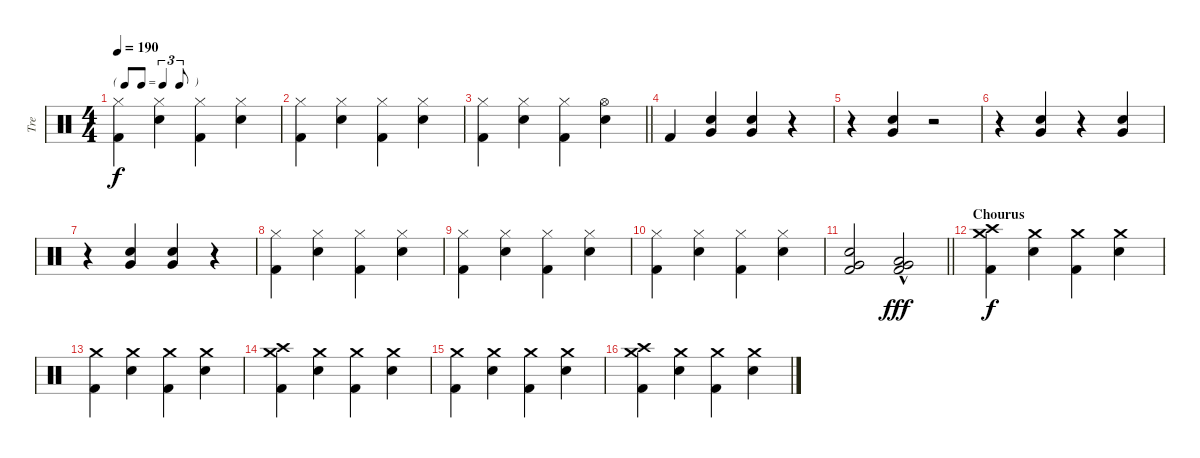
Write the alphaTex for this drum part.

\track ("Tre" "Tre") {instrument percussion}
\staff {score}
\articulation defaults
\ts (4 4)
\tf triplet8th
\tempo 190
\clef neutral
\ks c
("Hi-Hat (closed)" "Kick (hit) 2").4{dy f} ("Hi-Hat (closed)" "Snare (hit) 2").4 ("Hi-Hat (closed)" "Kick (hit) 2").4 ("Hi-Hat (closed)" "Snare (hit) 2").4 |
("Hi-Hat (closed)" "Kick (hit) 2").4 ("Hi-Hat (closed)" "Snare (hit) 2").4 ("Hi-Hat (closed)" "Kick (hit) 2").4 ("Hi-Hat (closed)" "Snare (hit) 2").4 |
\barLineRight lightlight
("Hi-Hat (closed)" "Kick (hit) 2").4 ("Hi-Hat (closed)" "Snare (hit) 2").4 ("Hi-Hat (closed)" "Kick (hit) 2").4 ("Hi-Hat (open)" "Snare (hit) 2").4 |
"Kick (hit) 2".4 ("Snare (hit) 2" "Very Low Tom (hit)").4 ("Snare (hit) 2" "Very Low Tom (hit)").4 r.4 |
r.4 ("Snare (hit) 2" "Very Low Tom (hit)").4 r.2 |
r.4 ("Snare (hit) 2" "Very Low Tom (hit)").4 r.4 ("Snare (hit) 2" "Very Low Tom (hit)").4 |
r.4 ("Snare (hit) 2" "Very Low Tom (hit)").4 ("Snare (hit) 2" "Very Low Tom (hit)").4 r.4 |
("Hi-Hat (closed)" "Kick (hit) 2").4 ("Hi-Hat (closed)" "Snare (hit) 2").4 ("Hi-Hat (closed)" "Kick (hit) 2").4 ("Hi-Hat (closed)" "Snare (hit) 2").4 |
("Hi-Hat (closed)" "Kick (hit) 2").4 ("Hi-Hat (closed)" "Snare (hit) 2").4 ("Hi-Hat (closed)" "Kick (hit) 2").4 ("Hi-Hat (closed)" "Snare (hit) 2").4 |
("Hi-Hat (closed)" "Kick (hit) 2").4 ("Hi-Hat (closed)" "Snare (hit) 2").4 ("Hi-Hat (closed)" "Kick (hit) 2").4 ("Hi-Hat (closed)" "Snare (hit) 2").4 |
\barLineRight lightlight
("Snare (hit) 2" "Very Low Tom (hit)" "Kick (hit) 2").2 ("Very Low Tom (hit)"{hac} "Low Floor Tom (hit)"{hac} "Kick (hit) 2"{hac}).2{dy fff} |
\section ("" "Chourus")
("Crash medium (hit)" "Crash high (hit)" "Kick (hit) 2").4{dy f} ("Crash medium (hit)" "Snare (hit) 2").4 ("Crash medium (hit)" "Kick (hit) 2").4 ("Crash medium (hit)" "Snare (hit) 2").4 |
("Crash medium (hit)" "Kick (hit) 2").4 ("Crash medium (hit)" "Snare (hit) 2").4 ("Crash medium (hit)" "Kick (hit) 2").4 ("Crash medium (hit)" "Snare (hit) 2").4 |
("Crash medium (hit)" "Crash high (hit)" "Kick (hit) 2").4 ("Crash medium (hit)" "Snare (hit) 2").4 ("Crash medium (hit)" "Kick (hit) 2").4 ("Crash medium (hit)" "Snare (hit) 2").4 |
("Crash medium (hit)" "Kick (hit) 2").4 ("Crash medium (hit)" "Snare (hit) 2").4 ("Crash medium (hit)" "Kick (hit) 2").4 ("Crash medium (hit)" "Snare (hit) 2").4 |
("Crash medium (hit)" "Crash high (hit)" "Kick (hit) 2").4 ("Crash medium (hit)" "Snare (hit) 2").4 ("Crash medium (hit)" "Kick (hit) 2").4 ("Crash medium (hit)" "Snare (hit) 2").4
